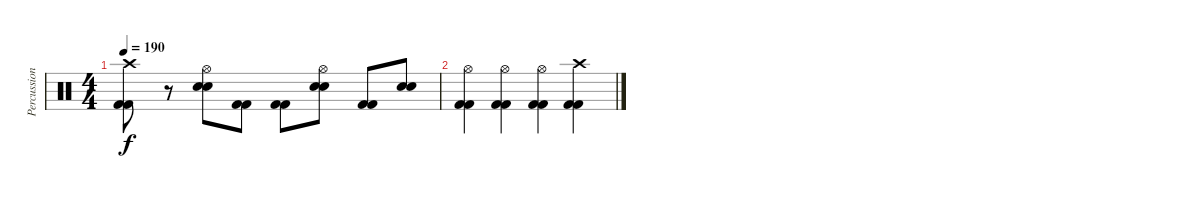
\track ("Percussions" "Percussion") {instrument percussion}
\staff {score}
\articulation defaults
\ts (4 4)
\tempo 190
\clef neutral
\ks c
("Kick (hit) 2" "Kick (hit) 2" "Crash high (hit)").8{dy f} r.8 ("Electric Snare (hit)" "Electric Snare (hit)" "Hi-Hat (open)").8 ("Kick (hit) 2" "Kick (hit) 2").8 ("Kick (hit) 2" "Kick (hit) 2").8 ("Electric Snare (hit)" "Electric Snare (hit)" "Hi-Hat (open)").8 ("Kick (hit) 2" "Kick (hit) 2").8 ("Electric Snare (hit)" "Electric Snare (hit)").8 |
("Kick (hit) 2" "Kick (hit) 2" "Hi-Hat (open)").4 ("Kick (hit) 2" "Kick (hit) 2" "Hi-Hat (open)").4 ("Kick (hit) 2" "Kick (hit) 2" "Hi-Hat (open)").4 ("Kick (hit) 2" "Kick (hit) 2" "Crash high (hit)").4
